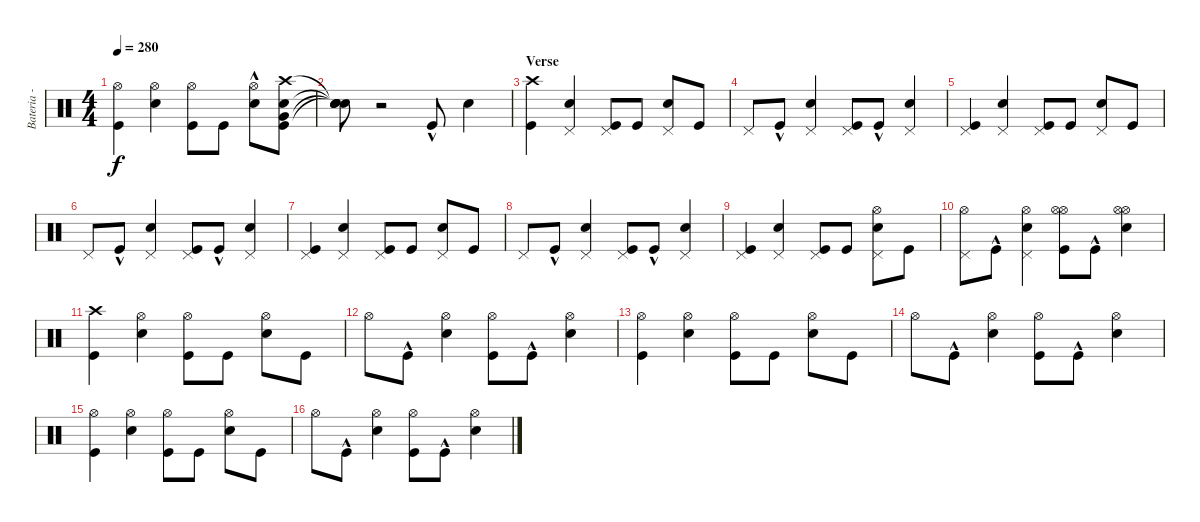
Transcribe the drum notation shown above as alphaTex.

\track ("Bateria - Larzon" "Bateria - ") {instrument percussion}
\staff {score}
\articulation defaults
\ts (4 4)
\tempo 280
\clef neutral
\ks c
("Kick (hit)" "Hi-Hat (open)").4{dy f} ("Snare (hit) 2" "Hi-Hat (open)").4 ("Kick (hit)" "Hi-Hat (open)").8 "Kick (hit)".8 ("Snare (hit) 2" "Hi-Hat (open)"{hac}).8 ("Kick (hit)" "Snare (hit) 2" "Very Low Tom (hit)" "Crash high (hit)").8 |
("Snare (hit)"{t} "Snare (hit)"{t} "Snare (hit)"{t} "Snare (hit)"{t}).8 r.2 "Kick (hit)"{hac}.8 "Snare (hit) 2".4 |
\section ("" "Verse")
("Kick (hit)" "Crash high (hit)").4 ("Snare (hit) 2" "Pedal Hi-Hat (hit)").4 ("Kick (hit)" "Pedal Hi-Hat (hit)").8 "Kick (hit)".8 ("Snare (hit) 2" "Pedal Hi-Hat (hit)").8 "Kick (hit)".8 |
"Pedal Hi-Hat (hit)".8 "Kick (hit)"{hac}.8 ("Snare (hit) 2" "Pedal Hi-Hat (hit)").4 ("Kick (hit)" "Pedal Hi-Hat (hit)").8 "Kick (hit)"{hac}.8 ("Snare (hit) 2" "Pedal Hi-Hat (hit)").4 |
("Kick (hit)" "Pedal Hi-Hat (hit)").4 ("Snare (hit) 2" "Pedal Hi-Hat (hit)").4 ("Kick (hit)" "Pedal Hi-Hat (hit)").8 "Kick (hit)".8 ("Snare (hit) 2" "Pedal Hi-Hat (hit)").8 "Kick (hit)".8 |
"Pedal Hi-Hat (hit)".8 "Kick (hit)"{hac}.8 ("Snare (hit) 2" "Pedal Hi-Hat (hit)").4 ("Kick (hit)" "Pedal Hi-Hat (hit)").8 "Kick (hit)"{hac}.8 ("Snare (hit) 2" "Pedal Hi-Hat (hit)").4 |
("Kick (hit)" "Pedal Hi-Hat (hit)").4 ("Snare (hit) 2" "Pedal Hi-Hat (hit)").4 ("Kick (hit)" "Pedal Hi-Hat (hit)").8 "Kick (hit)".8 ("Snare (hit) 2" "Pedal Hi-Hat (hit)").8 "Kick (hit)".8 |
"Pedal Hi-Hat (hit)".8 "Kick (hit)"{hac}.8 ("Snare (hit) 2" "Pedal Hi-Hat (hit)").4 ("Kick (hit)" "Pedal Hi-Hat (hit)").8 "Kick (hit)"{hac}.8 ("Snare (hit) 2" "Pedal Hi-Hat (hit)").4 |
("Kick (hit)" "Pedal Hi-Hat (hit)").4 ("Snare (hit) 2" "Pedal Hi-Hat (hit)").4 ("Kick (hit)" "Pedal Hi-Hat (hit)").8 "Kick (hit)".8 ("Snare (hit) 2" "Pedal Hi-Hat (hit)" "Hi-Hat (open)").8 "Kick (hit)".8 |
("Pedal Hi-Hat (hit)" "Hi-Hat (open)").8 "Kick (hit)"{hac}.8 ("Snare (hit) 2" "Pedal Hi-Hat (hit)" "Hi-Hat (open)").4 ("Kick (hit)" "Hi-Hat (open)" "Hi-Hat (open)").8 "Kick (hit)"{hac}.8 ("Snare (hit) 2" "Hi-Hat (open)" "Hi-Hat (open)").4 |
("Kick (hit)" "Crash high (hit)").4 ("Snare (hit) 2" "Hi-Hat (open)").4 ("Kick (hit)" "Hi-Hat (open)").8 "Kick (hit)".8 ("Snare (hit) 2" "Hi-Hat (open)").8 "Kick (hit)".8 |
"Hi-Hat (open)".8 "Kick (hit)"{hac}.8 ("Snare (hit) 2" "Hi-Hat (open)").4 ("Kick (hit)" "Hi-Hat (open)").8 "Kick (hit)"{hac}.8 ("Snare (hit) 2" "Hi-Hat (open)").4 |
("Kick (hit)" "Hi-Hat (open)").4 ("Snare (hit) 2" "Hi-Hat (open)").4 ("Kick (hit)" "Hi-Hat (open)").8 "Kick (hit)".8 ("Snare (hit) 2" "Hi-Hat (open)").8 "Kick (hit)".8 |
"Hi-Hat (open)".8 "Kick (hit)"{hac}.8 ("Snare (hit) 2" "Hi-Hat (open)").4 ("Kick (hit)" "Hi-Hat (open)").8 "Kick (hit)"{hac}.8 ("Snare (hit) 2" "Hi-Hat (open)").4 |
("Kick (hit)" "Hi-Hat (open)").4 ("Snare (hit) 2" "Hi-Hat (open)").4 ("Kick (hit)" "Hi-Hat (open)").8 "Kick (hit)".8 ("Snare (hit) 2" "Hi-Hat (open)").8 "Kick (hit)".8 |
"Hi-Hat (open)".8 "Kick (hit)"{hac}.8 ("Snare (hit) 2" "Hi-Hat (open)").4 ("Kick (hit)" "Hi-Hat (open)").8 "Kick (hit)"{hac}.8 ("Snare (hit) 2" "Hi-Hat (open)").4
